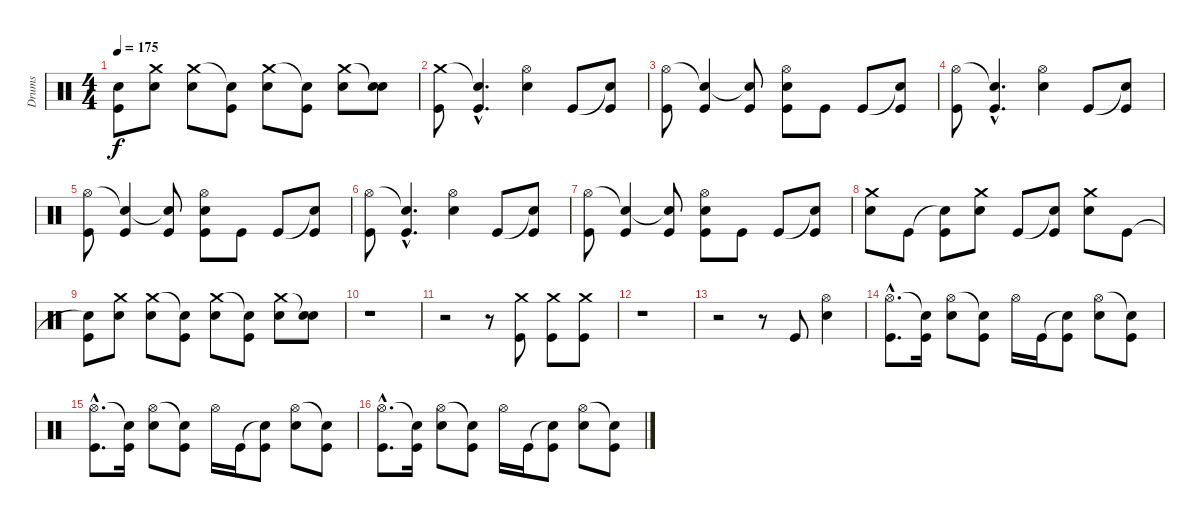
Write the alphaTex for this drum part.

\track ("Drums" "Drums") {instrument percussion}
\staff {score}
\articulation defaults
\ts (4 4)
\tempo 175
\clef neutral
\ks c
("Snare (hit)"{t} "Kick (hit)").8{dy f} ("Crash medium (hit)" "Electric Snare (hit)").8 ("Crash medium (hit)" "Electric Snare (hit)").8 ("Snare (hit)"{t} "Kick (hit)").8 ("Crash medium (hit)" "Electric Snare (hit)").8 ("Snare (hit)"{t} "Kick (hit)").8 ("Crash medium (hit)" "Electric Snare (hit)").8 ("Snare (hit)"{t} "Electric Snare (hit)").8 |
("Crash medium (hit)" "Kick (hit)").8 ("Snare (hit)"{hac t} "Kick (hit)"{hac}).4{d} ("Hi-Hat (open)" "Electric Snare (hit)").4 "Kick (hit)".8 ("Snare (hit)"{t} "Kick (hit)").8 |
("Hi-Hat (open)" "Kick (hit)").8 ("Snare (hit)"{t} "Kick (hit)").4 ("Snare (hit)"{t} "Kick (hit)").8 ("Hi-Hat (open)" "Electric Snare (hit)" "Kick (hit)").8 "Kick (hit)".8 "Kick (hit)".8 ("Snare (hit)"{t} "Kick (hit)").8 |
("Hi-Hat (open)" "Kick (hit)").8 ("Snare (hit)"{hac t} "Kick (hit)"{hac}).4{d} ("Hi-Hat (open)" "Electric Snare (hit)").4 "Kick (hit)".8 ("Snare (hit)"{t} "Kick (hit)").8 |
("Hi-Hat (open)" "Kick (hit)").8 ("Snare (hit)"{t} "Kick (hit)").4 ("Snare (hit)"{t} "Kick (hit)").8 ("Hi-Hat (open)" "Electric Snare (hit)" "Kick (hit)").8 "Kick (hit)".8 "Kick (hit)".8 ("Snare (hit)"{t} "Kick (hit)").8 |
("Hi-Hat (open)" "Kick (hit)").8 ("Snare (hit)"{hac t} "Kick (hit)"{hac}).4{d} ("Hi-Hat (open)" "Electric Snare (hit)").4 "Kick (hit)".8 ("Snare (hit)"{t} "Kick (hit)").8 |
("Hi-Hat (open)" "Kick (hit)").8 ("Snare (hit)"{t} "Kick (hit)").4 ("Snare (hit)"{t} "Kick (hit)").8 ("Hi-Hat (open)" "Electric Snare (hit)" "Kick (hit)").8 "Kick (hit)".8 "Kick (hit)".8 ("Snare (hit)"{t} "Kick (hit)").8 |
("Crash medium (hit)" "Electric Snare (hit)").8 "Kick (hit)".8 ("Snare (hit)"{t} "Kick (hit)").8 ("Crash medium (hit)" "Electric Snare (hit)").8 "Kick (hit)".8 ("Snare (hit)"{t} "Kick (hit)").8 ("Crash medium (hit)" "Electric Snare (hit)").8 "Kick (hit)".8 |
("Snare (hit)"{t} "Kick (hit)").8 ("Crash medium (hit)" "Electric Snare (hit)").8 ("Crash medium (hit)" "Electric Snare (hit)").8 ("Snare (hit)"{t} "Kick (hit)").8 ("Crash medium (hit)" "Electric Snare (hit)").8 ("Snare (hit)"{t} "Kick (hit)").8 ("Crash medium (hit)" "Electric Snare (hit)").8 ("Snare (hit)"{t} "Electric Snare (hit)").8 |
r.1 |
r.2 r.8 ("Crash medium (hit)" "Kick (hit)").8 ("Crash medium (hit)" "Kick (hit)").8 ("Crash medium (hit)" "Kick (hit)").8 |
r.1 |
r.2 r.8 "Kick (hit)".8 ("Hi-Hat (open)" "Electric Snare (hit)").4 |
("Hi-Hat (open)"{hac} "Kick (hit)"{hac}).8{d} ("Snare (hit)"{t} "Kick (hit)").16 ("Hi-Hat (open)" "Electric Snare (hit)").8 ("Snare (hit)"{t} "Kick (hit)").8 "Hi-Hat (open)".16 "Kick (hit)".16 ("Snare (hit)"{t} "Kick (hit)").8 ("Hi-Hat (open)" "Electric Snare (hit)").8 ("Snare (hit)"{t} "Kick (hit)").8 |
("Hi-Hat (open)"{hac} "Kick (hit)"{hac}).8{d} ("Snare (hit)"{t} "Kick (hit)").16 ("Hi-Hat (open)" "Electric Snare (hit)").8 ("Snare (hit)"{t} "Kick (hit)").8 "Hi-Hat (open)".16 "Kick (hit)".16 ("Snare (hit)"{t} "Kick (hit)").8 ("Hi-Hat (open)" "Electric Snare (hit)").8 ("Snare (hit)"{t} "Kick (hit)").8 |
("Hi-Hat (open)"{hac} "Kick (hit)"{hac}).8{d} ("Snare (hit)"{t} "Kick (hit)").16 ("Hi-Hat (open)" "Electric Snare (hit)").8 ("Snare (hit)"{t} "Kick (hit)").8 "Hi-Hat (open)".16 "Kick (hit)".16 ("Snare (hit)"{t} "Kick (hit)").8 ("Hi-Hat (open)" "Electric Snare (hit)").8 ("Snare (hit)"{t} "Kick (hit)").8
